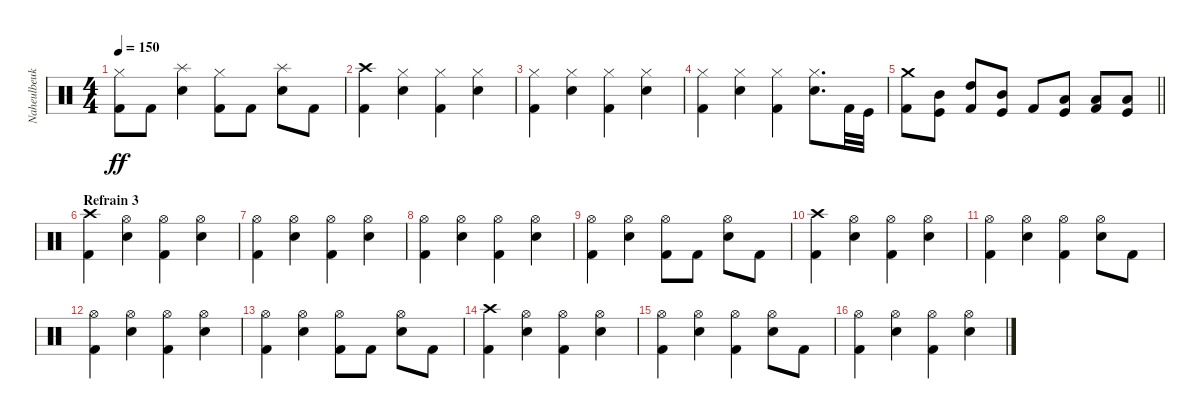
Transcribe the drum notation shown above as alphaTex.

\track ("Naheulbeuk" "Naheulbeuk") {instrument percussion}
\staff {score}
\articulation defaults
\ts (4 4)
\tempo 150
\clef neutral
\ks c
("Hi-Hat (closed)" "Kick (hit) 2").8{dy ff} "Kick (hit) 2".8 ("Splash (hit)" "Snare (hit) 2").4 ("Hi-Hat (closed)" "Kick (hit) 2").8 "Kick (hit) 2".8 ("Splash (hit)" "Snare (hit) 2").8 "Kick (hit) 2".8 |
("Crash high (hit)" "Kick (hit) 2").4 ("Hi-Hat (closed)" "Snare (hit) 2").4 ("Hi-Hat (closed)" "Kick (hit) 2").4 ("Hi-Hat (closed)" "Snare (hit) 2").4 |
("Hi-Hat (closed)" "Kick (hit) 2").4 ("Hi-Hat (closed)" "Snare (hit) 2").4 ("Hi-Hat (closed)" "Kick (hit) 2").4 ("Hi-Hat (closed)" "Snare (hit) 2").4 |
("Hi-Hat (closed)" "Kick (hit) 2").4 ("Hi-Hat (closed)" "Snare (hit) 2").4 ("Hi-Hat (closed)" "Kick (hit) 2").4 ("Hi-Hat (closed)" "Snare (hit) 2").8{d} "Kick (hit) 2".32 "Kick (hit)".32 |
\barLineRight lightlight
("Crash medium (hit)" "Kick (hit) 2").8 ("Mid Tom (hit)" "Kick (hit)").8 ("High Tom (hit)" "Kick (hit) 2").8 ("Mid Tom (hit)" "Kick (hit)").8 "Kick (hit) 2".8 ("Low Tom (hit)" "Kick (hit)").8 ("Low Tom (hit)" "Kick (hit) 2").8 ("Low Tom (hit)" "Kick (hit)").8 |
\section ("" "Refrain 3")
("Crash high (hit)" "Kick (hit) 2").4 ("Hi-Hat (open)" "Snare (hit) 2").4 ("Hi-Hat (open)" "Kick (hit) 2").4 ("Hi-Hat (open)" "Snare (hit) 2").4 |
("Hi-Hat (open)" "Kick (hit) 2").4 ("Hi-Hat (open)" "Snare (hit) 2").4 ("Hi-Hat (open)" "Kick (hit) 2").4 ("Hi-Hat (open)" "Snare (hit) 2").4 |
("Hi-Hat (open)" "Kick (hit) 2").4 ("Hi-Hat (open)" "Snare (hit) 2").4 ("Hi-Hat (open)" "Kick (hit) 2").4 ("Hi-Hat (open)" "Snare (hit) 2").4 |
("Hi-Hat (open)" "Kick (hit) 2").4 ("Hi-Hat (open)" "Snare (hit) 2").4 ("Hi-Hat (open)" "Kick (hit) 2").8 "Kick (hit) 2".8 ("Hi-Hat (open)" "Snare (hit) 2").8 "Kick (hit) 2".8 |
("Crash high (hit)" "Kick (hit) 2").4 ("Hi-Hat (open)" "Snare (hit) 2").4 ("Hi-Hat (open)" "Kick (hit) 2").4 ("Hi-Hat (open)" "Snare (hit) 2").4 |
("Hi-Hat (open)" "Kick (hit) 2").4 ("Hi-Hat (open)" "Snare (hit) 2").4 ("Hi-Hat (open)" "Kick (hit) 2").4 ("Hi-Hat (open)" "Snare (hit) 2").8 "Kick (hit) 2".8 |
("Hi-Hat (open)" "Kick (hit) 2").4 ("Hi-Hat (open)" "Snare (hit) 2").4 ("Hi-Hat (open)" "Kick (hit) 2").4 ("Hi-Hat (open)" "Snare (hit) 2").4 |
("Hi-Hat (open)" "Kick (hit) 2").4 ("Hi-Hat (open)" "Snare (hit) 2").4 ("Hi-Hat (open)" "Kick (hit) 2").8 "Kick (hit) 2".8 ("Hi-Hat (open)" "Snare (hit) 2").8 "Kick (hit) 2".8 |
("Crash high (hit)" "Kick (hit) 2").4 ("Hi-Hat (open)" "Snare (hit) 2").4 ("Hi-Hat (open)" "Kick (hit) 2").4 ("Hi-Hat (open)" "Snare (hit) 2").4 |
("Hi-Hat (open)" "Kick (hit) 2").4 ("Hi-Hat (open)" "Snare (hit) 2").4 ("Hi-Hat (open)" "Kick (hit) 2").4 ("Hi-Hat (open)" "Snare (hit) 2").8 "Kick (hit) 2".8 |
("Hi-Hat (open)" "Kick (hit) 2").4 ("Hi-Hat (open)" "Snare (hit) 2").4 ("Hi-Hat (open)" "Kick (hit) 2").4 ("Hi-Hat (open)" "Snare (hit) 2").4
